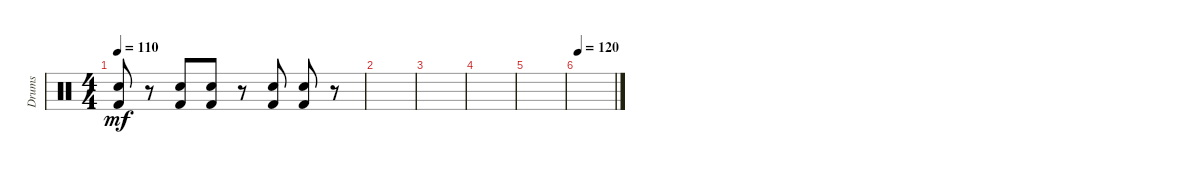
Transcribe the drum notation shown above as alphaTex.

\track ("Drums" "Drums") {instrument percussion}
\staff {score}
\articulation defaults
\ts (4 4)
\tempo 110
\clef neutral
\ks c
("Kick (hit) 2" "Snare (hit) 2").8{dy mf} r.8 ("Kick (hit) 2" "Snare (hit) 2").8 ("Kick (hit) 2" "Snare (hit) 2").8 r.8 ("Kick (hit) 2" "Snare (hit) 2").8 ("Kick (hit) 2" "Snare (hit) 2").8 r.8 |
|
|
|
|
\tempo 120
